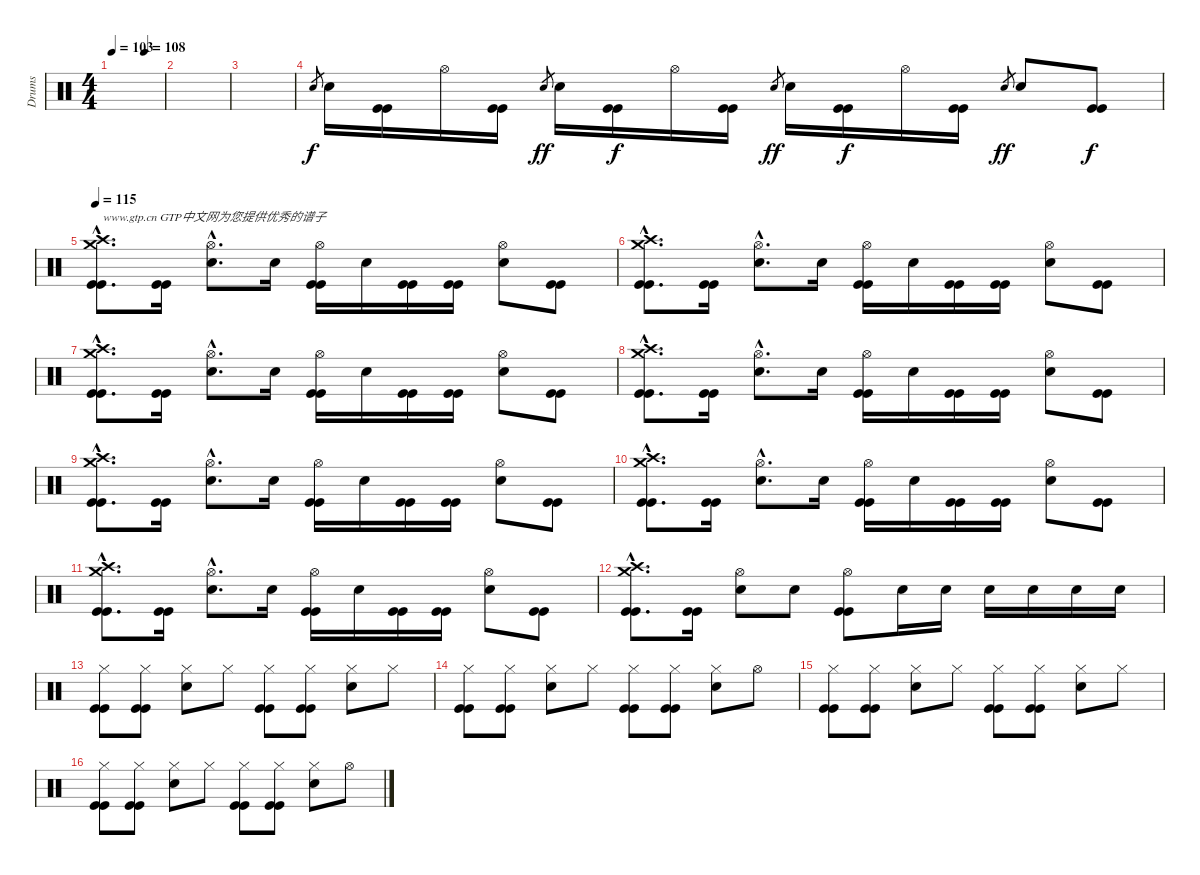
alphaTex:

\track ("Drums" "Drums") {instrument percussion}
\staff {score}
\articulation defaults
\ts (4 4)
\tempo 103
\tempo (108 0.625)
\tempo 103
\clef neutral
\ks c
|
|
|
"Electric Snare (hit)".8{gr} "Electric Snare (hit)".16 ("Kick (hit)" "Kick (hit)").16{dy f} "Hi-Hat (open)".16 ("Kick (hit)" "Kick (hit)").16 "Electric Snare (hit)".8{gr dy ff} "Electric Snare (hit)".16 ("Kick (hit)" "Kick (hit)").16{dy f} "Hi-Hat (open)".16 ("Kick (hit)" "Kick (hit)").16 "Electric Snare (hit)".8{gr dy ff} "Electric Snare (hit)".16 ("Kick (hit)" "Kick (hit)").16{dy f} "Hi-Hat (open)".16 ("Kick (hit)" "Kick (hit)").16 "Electric Snare (hit)".8{gr dy ff} "Electric Snare (hit)".8 ("Kick (hit)" "Kick (hit)").8{dy f} |
\tempo 115
("Crash high (hit)"{hac} "Crash medium (hit)"{hac} "Kick (hit)"{hac} "Kick (hit)"{hac}).8{d txt "www.gtp.cn GTP中文网为您提供优秀的谱子"} ("Kick (hit)" "Kick (hit)").16 ("Hi-Hat (open)"{hac} "Electric Snare (hit)"{hac}).8{d} "Electric Snare (hit)".16 ("Hi-Hat (open)" "Kick (hit)" "Kick (hit)").16 "Electric Snare (hit)".16 ("Kick (hit)" "Kick (hit)").16 ("Kick (hit)" "Kick (hit)").16 ("Hi-Hat (open)" "Electric Snare (hit)").8 ("Kick (hit)" "Kick (hit)").8 |
("Crash high (hit)"{hac} "Crash medium (hit)"{hac} "Kick (hit)"{hac} "Kick (hit)"{hac}).8{d} ("Kick (hit)" "Kick (hit)").16 ("Hi-Hat (open)"{hac} "Electric Snare (hit)"{hac}).8{d} "Electric Snare (hit)".16 ("Hi-Hat (open)" "Kick (hit)" "Kick (hit)").16 "Electric Snare (hit)".16 ("Kick (hit)" "Kick (hit)").16 ("Kick (hit)" "Kick (hit)").16 ("Hi-Hat (open)" "Electric Snare (hit)").8 ("Kick (hit)" "Kick (hit)").8 |
("Crash high (hit)"{hac} "Crash medium (hit)"{hac} "Kick (hit)"{hac} "Kick (hit)"{hac}).8{d} ("Kick (hit)" "Kick (hit)").16 ("Hi-Hat (open)"{hac} "Electric Snare (hit)"{hac}).8{d} "Electric Snare (hit)".16 ("Hi-Hat (open)" "Kick (hit)" "Kick (hit)").16 "Electric Snare (hit)".16 ("Kick (hit)" "Kick (hit)").16 ("Kick (hit)" "Kick (hit)").16 ("Hi-Hat (open)" "Electric Snare (hit)").8 ("Kick (hit)" "Kick (hit)").8 |
("Crash high (hit)"{hac} "Crash medium (hit)"{hac} "Kick (hit)"{hac} "Kick (hit)"{hac}).8{d} ("Kick (hit)" "Kick (hit)").16 ("Hi-Hat (open)"{hac} "Electric Snare (hit)"{hac}).8{d} "Electric Snare (hit)".16 ("Hi-Hat (open)" "Kick (hit)" "Kick (hit)").16 "Electric Snare (hit)".16 ("Kick (hit)" "Kick (hit)").16 ("Kick (hit)" "Kick (hit)").16 ("Hi-Hat (open)" "Electric Snare (hit)").8 ("Kick (hit)" "Kick (hit)").8 |
("Crash high (hit)"{hac} "Crash medium (hit)"{hac} "Kick (hit)"{hac} "Kick (hit)"{hac}).8{d} ("Kick (hit)" "Kick (hit)").16 ("Hi-Hat (open)"{hac} "Electric Snare (hit)"{hac}).8{d} "Electric Snare (hit)".16 ("Hi-Hat (open)" "Kick (hit)" "Kick (hit)").16 "Electric Snare (hit)".16 ("Kick (hit)" "Kick (hit)").16 ("Kick (hit)" "Kick (hit)").16 ("Hi-Hat (open)" "Electric Snare (hit)").8 ("Kick (hit)" "Kick (hit)").8 |
("Crash high (hit)"{hac} "Crash medium (hit)"{hac} "Kick (hit)"{hac} "Kick (hit)"{hac}).8{d} ("Kick (hit)" "Kick (hit)").16 ("Hi-Hat (open)"{hac} "Electric Snare (hit)"{hac}).8{d} "Electric Snare (hit)".16 ("Hi-Hat (open)" "Kick (hit)" "Kick (hit)").16 "Electric Snare (hit)".16 ("Kick (hit)" "Kick (hit)").16 ("Kick (hit)" "Kick (hit)").16 ("Hi-Hat (open)" "Electric Snare (hit)").8 ("Kick (hit)" "Kick (hit)").8 |
("Crash high (hit)"{hac} "Crash medium (hit)"{hac} "Kick (hit)"{hac} "Kick (hit)"{hac}).8{d} ("Kick (hit)" "Kick (hit)").16 ("Hi-Hat (open)"{hac} "Electric Snare (hit)"{hac}).8{d} "Electric Snare (hit)".16 ("Hi-Hat (open)" "Kick (hit)" "Kick (hit)").16 "Electric Snare (hit)".16 ("Kick (hit)" "Kick (hit)").16 ("Kick (hit)" "Kick (hit)").16 ("Hi-Hat (open)" "Electric Snare (hit)").8 ("Kick (hit)" "Kick (hit)").8 |
("Crash high (hit)"{hac} "Crash medium (hit)"{hac} "Kick (hit)"{hac} "Kick (hit)"{hac}).8{d} ("Kick (hit)" "Kick (hit)").16 ("Hi-Hat (open)" "Electric Snare (hit)").8 "Electric Snare (hit)".8 ("Hi-Hat (open)" "Kick (hit)" "Kick (hit)").8 "Electric Snare (hit)".16 "Electric Snare (hit)".16 "Electric Snare (hit)".16 "Electric Snare (hit)".16 "Electric Snare (hit)".16 "Electric Snare (hit)".16 |
("Hi-Hat (closed)" "Kick (hit)" "Kick (hit)").8 ("Hi-Hat (closed)" "Kick (hit)" "Kick (hit)").8 ("Hi-Hat (closed)" "Electric Snare (hit)").8 "Hi-Hat (closed)".8 ("Hi-Hat (closed)" "Kick (hit)" "Kick (hit)").8 ("Hi-Hat (closed)" "Kick (hit)" "Kick (hit)").8 ("Hi-Hat (closed)" "Electric Snare (hit)").8 "Hi-Hat (closed)".8 |
("Hi-Hat (closed)" "Kick (hit)" "Kick (hit)").8 ("Hi-Hat (closed)" "Kick (hit)" "Kick (hit)").8 ("Hi-Hat (closed)" "Electric Snare (hit)").8 "Hi-Hat (closed)".8 ("Hi-Hat (closed)" "Kick (hit)" "Kick (hit)").8 ("Hi-Hat (closed)" "Kick (hit)" "Kick (hit)").8 ("Hi-Hat (closed)" "Electric Snare (hit)").8 "Hi-Hat (open)".8 |
("Hi-Hat (closed)" "Kick (hit)" "Kick (hit)").8 ("Hi-Hat (closed)" "Kick (hit)" "Kick (hit)").8 ("Hi-Hat (closed)" "Electric Snare (hit)").8 "Hi-Hat (closed)".8 ("Hi-Hat (closed)" "Kick (hit)" "Kick (hit)").8 ("Hi-Hat (closed)" "Kick (hit)" "Kick (hit)").8 ("Hi-Hat (closed)" "Electric Snare (hit)").8 "Hi-Hat (closed)".8 |
("Hi-Hat (closed)" "Kick (hit)" "Kick (hit)").8 ("Hi-Hat (closed)" "Kick (hit)" "Kick (hit)").8 ("Hi-Hat (closed)" "Electric Snare (hit)").8 "Hi-Hat (closed)".8 ("Hi-Hat (closed)" "Kick (hit)" "Kick (hit)").8 ("Hi-Hat (closed)" "Kick (hit)" "Kick (hit)").8 ("Hi-Hat (closed)" "Electric Snare (hit)").8 "Hi-Hat (open)".8
